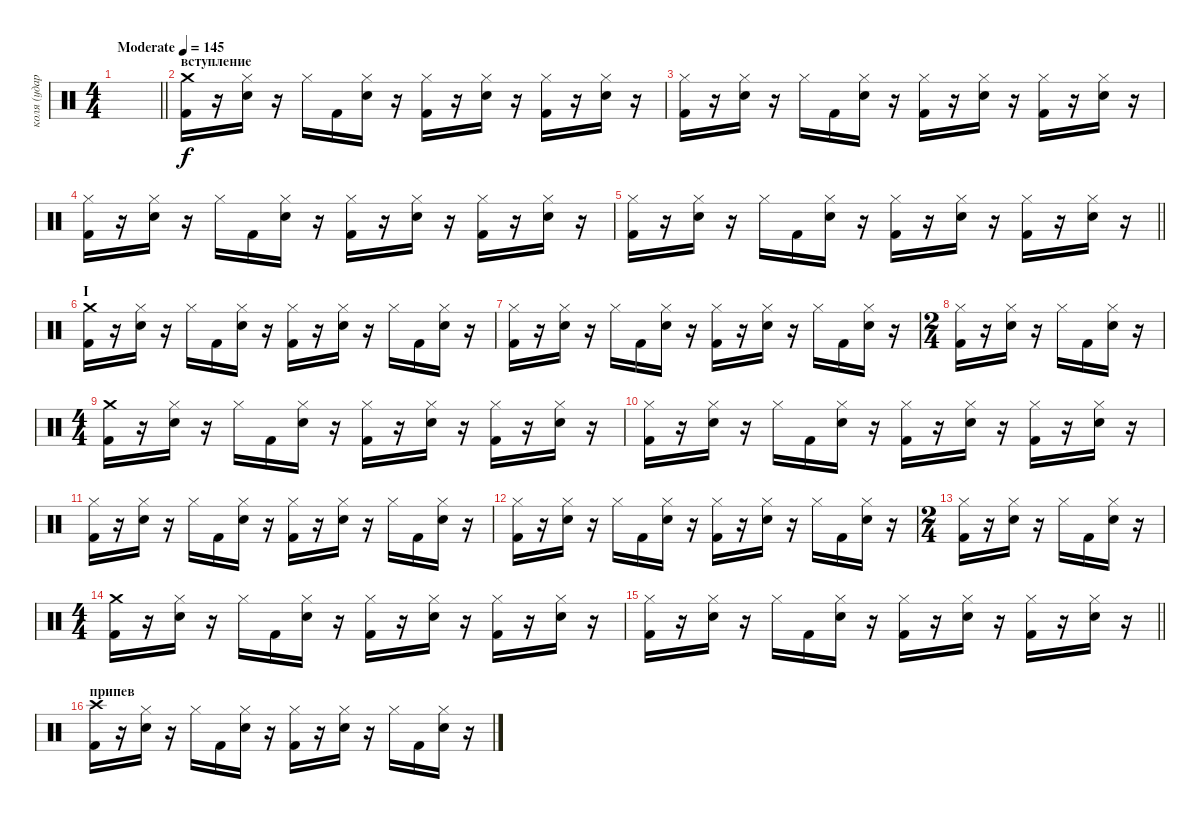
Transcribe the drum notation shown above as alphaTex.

\track ("коля (ударные)" "коля (удар") {instrument percussion}
\staff {score}
\articulation defaults
\ts (4 4)
\tempo (145 "Moderate")
\clef neutral
\barLineRight lightlight
\ks c
|
\section ("" "вступление")
("Kick (hit) 2" "Crash medium (hit)").16 r.16 ("Snare (hit) 2" "Hi-Hat (closed)").16 r.16 "Hi-Hat (closed)".16 "Kick (hit) 2".16 ("Snare (hit) 2" "Hi-Hat (closed)").16 r.16 ("Kick (hit) 2" "Hi-Hat (closed)").16 r.16 ("Snare (hit) 2" "Hi-Hat (closed)").16 r.16 ("Kick (hit) 2" "Hi-Hat (closed)").16 r.16 ("Snare (hit) 2" "Hi-Hat (closed)").16 r.16 |
("Kick (hit) 2" "Hi-Hat (closed)").16 r.16 ("Snare (hit) 2" "Hi-Hat (closed)").16 r.16 "Hi-Hat (closed)".16 "Kick (hit) 2".16 ("Snare (hit) 2" "Hi-Hat (closed)").16 r.16 ("Kick (hit) 2" "Hi-Hat (closed)").16 r.16 ("Snare (hit) 2" "Hi-Hat (closed)").16 r.16 ("Kick (hit) 2" "Hi-Hat (closed)").16 r.16 ("Snare (hit) 2" "Hi-Hat (closed)").16 r.16 |
("Kick (hit) 2" "Hi-Hat (closed)").16 r.16 ("Snare (hit) 2" "Hi-Hat (closed)").16 r.16 "Hi-Hat (closed)".16 "Kick (hit) 2".16 ("Snare (hit) 2" "Hi-Hat (closed)").16 r.16 ("Kick (hit) 2" "Hi-Hat (closed)").16 r.16 ("Snare (hit) 2" "Hi-Hat (closed)").16 r.16 ("Kick (hit) 2" "Hi-Hat (closed)").16 r.16 ("Snare (hit) 2" "Hi-Hat (closed)").16 r.16 |
\barLineRight lightlight
("Kick (hit) 2" "Hi-Hat (closed)").16 r.16 ("Snare (hit) 2" "Hi-Hat (closed)").16 r.16 "Hi-Hat (closed)".16 "Kick (hit) 2".16 ("Snare (hit) 2" "Hi-Hat (closed)").16 r.16 ("Kick (hit) 2" "Hi-Hat (closed)").16 r.16 ("Snare (hit) 2" "Hi-Hat (closed)").16 r.16 ("Kick (hit) 2" "Hi-Hat (closed)").16 r.16 ("Snare (hit) 2" "Hi-Hat (closed)").16 r.16 |
\section ("" "I")
("Kick (hit) 2" "Crash medium (hit)").16 r.16 ("Snare (hit) 2" "Hi-Hat (closed)").16 r.16 "Hi-Hat (closed)".16 "Kick (hit) 2".16 ("Snare (hit) 2" "Hi-Hat (closed)").16 r.16 ("Kick (hit) 2" "Hi-Hat (closed)").16 r.16 ("Snare (hit) 2" "Hi-Hat (closed)").16 r.16 "Hi-Hat (closed)".16 "Kick (hit) 2".16 ("Snare (hit) 2" "Hi-Hat (closed)").16 r.16 |
("Kick (hit) 2" "Hi-Hat (closed)").16 r.16 ("Snare (hit) 2" "Hi-Hat (closed)").16 r.16 "Hi-Hat (closed)".16 "Kick (hit) 2".16 ("Snare (hit) 2" "Hi-Hat (closed)").16 r.16 ("Kick (hit) 2" "Hi-Hat (closed)").16 r.16 ("Snare (hit) 2" "Hi-Hat (closed)").16 r.16 "Hi-Hat (closed)".16 "Kick (hit) 2".16 ("Snare (hit) 2" "Hi-Hat (closed)").16 r.16 |
\ts (2 4)
("Kick (hit) 2" "Hi-Hat (closed)").16 r.16 ("Snare (hit) 2" "Hi-Hat (closed)").16 r.16 "Hi-Hat (closed)".16 "Kick (hit) 2".16 ("Snare (hit) 2" "Hi-Hat (closed)").16 r.16 |
\ts (4 4)
("Kick (hit) 2" "Crash medium (hit)").16 r.16 ("Snare (hit) 2" "Hi-Hat (closed)").16 r.16 "Hi-Hat (closed)".16 "Kick (hit) 2".16 ("Snare (hit) 2" "Hi-Hat (closed)").16 r.16 ("Kick (hit) 2" "Hi-Hat (closed)").16 r.16 ("Snare (hit) 2" "Hi-Hat (closed)").16 r.16 ("Kick (hit) 2" "Hi-Hat (closed)").16 r.16 ("Snare (hit) 2" "Hi-Hat (closed)").16 r.16 |
("Kick (hit) 2" "Hi-Hat (closed)").16 r.16 ("Snare (hit) 2" "Hi-Hat (closed)").16 r.16 "Hi-Hat (closed)".16 "Kick (hit) 2".16 ("Snare (hit) 2" "Hi-Hat (closed)").16 r.16 ("Kick (hit) 2" "Hi-Hat (closed)").16 r.16 ("Snare (hit) 2" "Hi-Hat (closed)").16 r.16 ("Kick (hit) 2" "Hi-Hat (closed)").16 r.16 ("Snare (hit) 2" "Hi-Hat (closed)").16 r.16 |
("Kick (hit) 2" "Hi-Hat (closed)").16 r.16 ("Snare (hit) 2" "Hi-Hat (closed)").16 r.16 "Hi-Hat (closed)".16 "Kick (hit) 2".16 ("Snare (hit) 2" "Hi-Hat (closed)").16 r.16 ("Kick (hit) 2" "Hi-Hat (closed)").16 r.16 ("Snare (hit) 2" "Hi-Hat (closed)").16 r.16 "Hi-Hat (closed)".16 "Kick (hit) 2".16 ("Snare (hit) 2" "Hi-Hat (closed)").16 r.16 |
("Kick (hit) 2" "Hi-Hat (closed)").16 r.16 ("Snare (hit) 2" "Hi-Hat (closed)").16 r.16 "Hi-Hat (closed)".16 "Kick (hit) 2".16 ("Snare (hit) 2" "Hi-Hat (closed)").16 r.16 ("Kick (hit) 2" "Hi-Hat (closed)").16 r.16 ("Snare (hit) 2" "Hi-Hat (closed)").16 r.16 "Hi-Hat (closed)".16 "Kick (hit) 2".16 ("Snare (hit) 2" "Hi-Hat (closed)").16 r.16 |
\ts (2 4)
("Kick (hit) 2" "Hi-Hat (closed)").16 r.16 ("Snare (hit) 2" "Hi-Hat (closed)").16 r.16 "Hi-Hat (closed)".16 "Kick (hit) 2".16 ("Snare (hit) 2" "Hi-Hat (closed)").16 r.16 |
\ts (4 4)
("Kick (hit) 2" "Crash medium (hit)").16 r.16 ("Snare (hit) 2" "Hi-Hat (closed)").16 r.16 "Hi-Hat (closed)".16 "Kick (hit) 2".16 ("Snare (hit) 2" "Hi-Hat (closed)").16 r.16 ("Kick (hit) 2" "Hi-Hat (closed)").16 r.16 ("Snare (hit) 2" "Hi-Hat (closed)").16 r.16 ("Kick (hit) 2" "Hi-Hat (closed)").16 r.16 ("Snare (hit) 2" "Hi-Hat (closed)").16 r.16 |
\barLineRight lightlight
("Kick (hit) 2" "Hi-Hat (closed)").16 r.16 ("Snare (hit) 2" "Hi-Hat (closed)").16 r.16 "Hi-Hat (closed)".16 "Kick (hit) 2".16 ("Snare (hit) 2" "Hi-Hat (closed)").16 r.16 ("Kick (hit) 2" "Hi-Hat (closed)").16 r.16 ("Snare (hit) 2" "Hi-Hat (closed)").16 r.16 ("Kick (hit) 2" "Hi-Hat (closed)").16 r.16 ("Snare (hit) 2" "Hi-Hat (closed)").16 r.16 |
\section ("" "припев")
("Kick (hit) 2" "Crash high (hit)").16 r.16 ("Snare (hit) 2" "Hi-Hat (closed)").16 r.16 "Hi-Hat (closed)".16 "Kick (hit) 2".16 ("Snare (hit) 2" "Hi-Hat (closed)").16 r.16 ("Kick (hit) 2" "Hi-Hat (closed)").16 r.16 ("Snare (hit) 2" "Hi-Hat (closed)").16 r.16 "Hi-Hat (closed)".16 "Kick (hit) 2".16 ("Snare (hit) 2" "Hi-Hat (closed)").16 r.16
